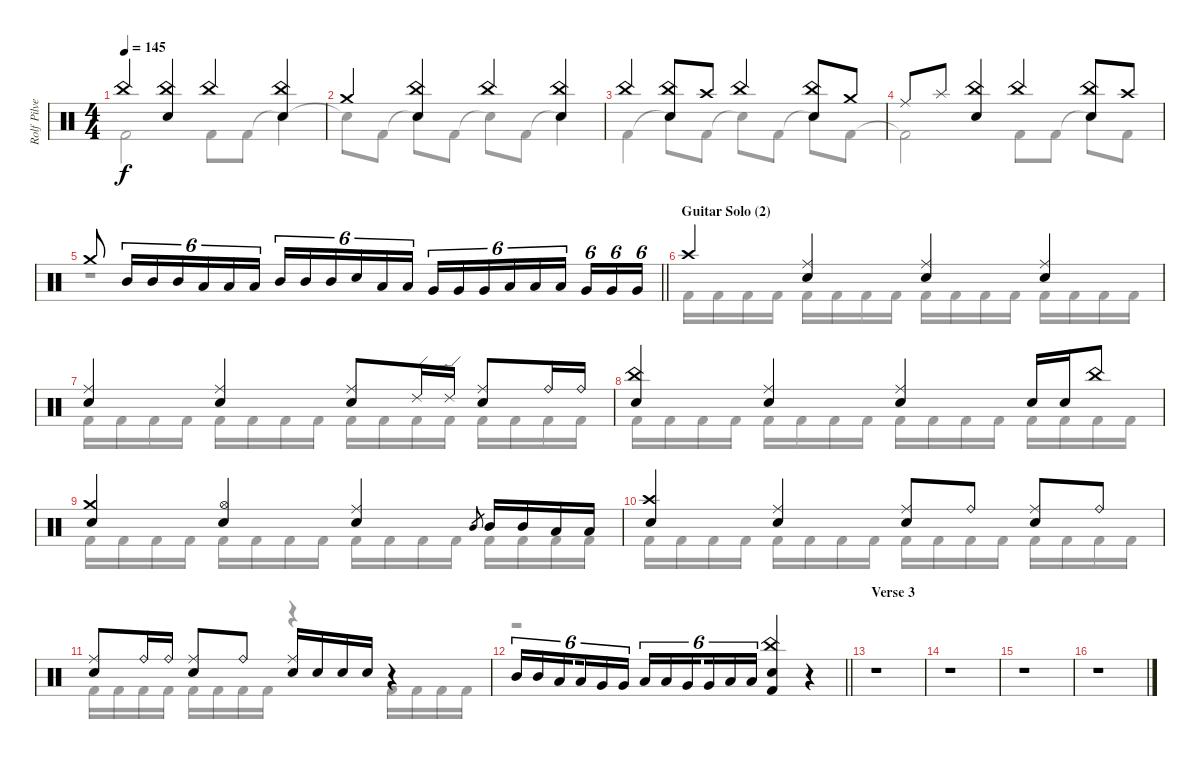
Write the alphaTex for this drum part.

\track ("Rolf Pilve - drums" "Rolf Pilve") {instrument percussion}
\staff {score}
\articulation defaults
\voice
\ts (4 4)
\tempo 145
\clef neutral
\ks aminor "China (hit)".4{dy f}
("China (hit)" "Electric Snare (hit)").4 "China (hit)".4 ("China (hit)" "Electric Snare (hit)").4 |
"Crash medium (hit)".4 ("China (hit)" "Electric Snare (hit)").4 "China (hit)".4 ("China (hit)" "Electric Snare (hit)").4 |
"China (hit)".4 ("China (hit)" "Electric Snare (hit)").8 "Crash high (hit)".8 "China (hit)".4 ("China (hit)" "Electric Snare (hit)").8 "Crash medium (hit)".8 |
"Ride (middle)".8 "Splash (hit)".8 ("China (hit)" "Electric Snare (hit)").4 "China (hit)".4 ("China (hit)" "Electric Snare (hit)").8 "Crash high (hit)".8 |
\barLineRight lightlight "Crash medium (hit)".8 "Mid Tom (hit)".16{tu (6 4)} "Mid Tom (hit)".16{tu (6 4)} "Mid Tom (hit)".16{tu (6 4)} "Low Tom (hit)".16{tu (6 4)} "Low Tom (hit)".16{tu (6 4)} "Low Tom (hit)".16{tu (6 4) beam splitsecondary} "Mid Tom (hit)".16{tu (6 4)} "Mid Tom (hit)".16{tu (6 4)} "Mid Tom (hit)".16{tu (6 4)} "Electric Snare (hit)".16{tu (6 4)} "Low Tom (hit)".16{tu (6 4)} "Low Tom (hit)".16{tu (6 4) beam splitsecondary} "Very Low Tom (hit)".16{tu (6 4)} "Very Low Tom (hit)".16{tu (6 4)} "Very Low Tom (hit)".16{tu (6 4)} "Low Tom (hit)".16{tu (6 4)} "Low Tom (hit)".16{tu (6 4)} "Low Tom (hit)".16{tu (6 4) beam splitsecondary} "Very Low Tom (hit)".16{tu (6 4)} "Very Low Tom (hit)".16{tu (6 4)} "Very Low Tom (hit)".16{tu (6 4)}
|
\section ("" "Guitar Solo (2)")
"Crash high (hit)".4 ("Ride (middle)" "Electric Snare (hit)").4 ("Ride (middle)" "Electric Snare (hit)").4 ("Ride (middle)" "Electric Snare (hit)").4 |
("Ride (middle)" "Electric Snare (hit)").4 ("Ride (middle)" "Electric Snare (hit)").4 ("Ride (middle)" "Electric Snare (hit)").8 "Ride (edge) 2".16 "Ride (edge) 2".16 ("Ride (middle)" "Electric Snare (hit)").8 "Ride (bell)".16 "Ride (bell)".16 |
("China (hit)" "Electric Snare (hit)").4 ("Ride (middle)" "Electric Snare (hit)").4 ("Ride (middle)" "Electric Snare (hit)").4 "Electric Snare (hit)".16 "Electric Snare (hit)".16 "China (hit)".8 |
("Crash medium (hit)" "Electric Snare (hit)").4 ("Hi-Hat (open)" "Electric Snare (hit)").4 ("Ride (middle)" "Electric Snare (hit)").4 "Mid Tom (hit)".8{gr} "Mid Tom (hit)".16 "Mid Tom (hit)".16 "Low Tom (hit)".16 "Low Tom (hit)".16 |
("Crash high (hit)" "Electric Snare (hit)").4 ("Ride (middle)" "Electric Snare (hit)").4 ("Ride (middle)" "Electric Snare (hit)").8 "Ride (bell)".8 ("Ride (middle)" "Electric Snare (hit)").8 "Ride (bell)".8 |
("Ride (middle)" "Electric Snare (hit)").8 "Ride (bell)".16 "Ride (bell)".16 ("Ride (middle)" "Electric Snare (hit)").8 "Ride (bell)".8 ("Ride (middle)" "Electric Snare (hit)").16 "Electric Snare (hit)".16 "Electric Snare (hit)".16 "Electric Snare (hit)".16 r.4 |
\barLineRight lightlight "Mid Tom (hit)".16{tu (6 4)} "Mid Tom (hit)".16{tu (6 4)} "Low Tom (hit)".16{tu (6 4) beam splitsecondary} "Low Tom (hit)".16{tu (6 4)} "Very Low Tom (hit)".16{tu (6 4)} "Very Low Tom (hit)".16{tu (6 4)} "Low Tom (hit)".16{tu (6 4)} "Low Tom (hit)".16{tu (6 4)} "Very Low Tom (hit)".16{tu (6 4) beam splitsecondary} "Very Low Tom (hit)".16{tu (6 4)} "Low Floor Tom (hit)".16{tu (6 4)} "Low Floor Tom (hit)".16{tu (6 4)}
("China (hit)" "Electric Snare (hit)" "Kick (hit) 2").4 r.4 |
\section ("" "Verse 3")
r.1 |
r.1 |
r.1 |
r.1
\voice
\clef neutral
\ottava regular
\simile none
\ks aminor "Kick (hit) 2".2{dy f} "Kick (hit) 2".8 "Kick (hit) 2".8 "Snare (hit)"{t}.4
|
"Snare (hit)"{t}.8 "Kick (hit) 2".8 "Snare (hit)"{t}.8 "Kick (hit) 2".8 "Snare (hit)"{t}.8 "Kick (hit) 2".8 "Snare (hit)"{t}.4 |
"Kick (hit) 2".4 "Snare (hit)"{t}.8 "Kick (hit) 2".8 "Snare (hit)"{t}.8 "Kick (hit) 2".8 "Snare (hit)"{t}.8 "Kick (hit) 2".8 |
"Kick (hit) 2"{t}.2 "Kick (hit) 2".8 "Kick (hit) 2".8 "Snare (hit)"{t}.8 "Kick (hit) 2".8 |
\barLineRight lightlight
r.1 |
"Kick (hit) 2".16 "Kick (hit) 2".16 "Kick (hit) 2".16 "Kick (hit) 2".16 "Kick (hit) 2".16 "Kick (hit) 2".16 "Kick (hit) 2".16 "Kick (hit) 2".16 "Kick (hit) 2".16 "Kick (hit) 2".16 "Kick (hit) 2".16 "Kick (hit) 2".16 "Kick (hit) 2".16 "Kick (hit) 2".16 "Kick (hit) 2".16 "Kick (hit) 2".16 |
"Kick (hit) 2".16 "Kick (hit) 2".16 "Kick (hit) 2".16 "Kick (hit) 2".16 "Kick (hit) 2".16 "Kick (hit) 2".16 "Kick (hit) 2".16 "Kick (hit) 2".16 "Kick (hit) 2".16 "Kick (hit) 2".16 "Kick (hit) 2".16 "Kick (hit) 2".16 "Kick (hit) 2".16 "Kick (hit) 2".16 "Kick (hit) 2".16 "Kick (hit) 2".16 |
"Kick (hit) 2".16 "Kick (hit) 2".16 "Kick (hit) 2".16 "Kick (hit) 2".16 "Kick (hit) 2".16 "Kick (hit) 2".16 "Kick (hit) 2".16 "Kick (hit) 2".16 "Kick (hit) 2".16 "Kick (hit) 2".16 "Kick (hit) 2".16 "Kick (hit) 2".16 "Kick (hit) 2".16 "Kick (hit) 2".16 "Kick (hit) 2".16 "Kick (hit) 2".16 |
"Kick (hit) 2".16 "Kick (hit) 2".16 "Kick (hit) 2".16 "Kick (hit) 2".16 "Kick (hit) 2".16 "Kick (hit) 2".16 "Kick (hit) 2".16 "Kick (hit) 2".16 "Kick (hit) 2".16 "Kick (hit) 2".16 "Kick (hit) 2".16 "Kick (hit) 2".16 "Kick (hit) 2".16 "Kick (hit) 2".16 "Kick (hit) 2".16 "Kick (hit) 2".16 |
"Kick (hit) 2".16 "Kick (hit) 2".16 "Kick (hit) 2".16 "Kick (hit) 2".16 "Kick (hit) 2".16 "Kick (hit) 2".16 "Kick (hit) 2".16 "Kick (hit) 2".16 "Kick (hit) 2".16 "Kick (hit) 2".16 "Kick (hit) 2".16 "Kick (hit) 2".16 "Kick (hit) 2".16 "Kick (hit) 2".16 "Kick (hit) 2".16 "Kick (hit) 2".16 |
"Kick (hit) 2".16 "Kick (hit) 2".16 "Kick (hit) 2".16 "Kick (hit) 2".16 "Kick (hit) 2".16 "Kick (hit) 2".16 "Kick (hit) 2".16 "Kick (hit) 2".16 r.4 "Kick (hit) 2".16 "Kick (hit) 2".16 "Kick (hit) 2".16 "Kick (hit) 2".16 |
\barLineRight lightlight
r.1 |
|
|
|
